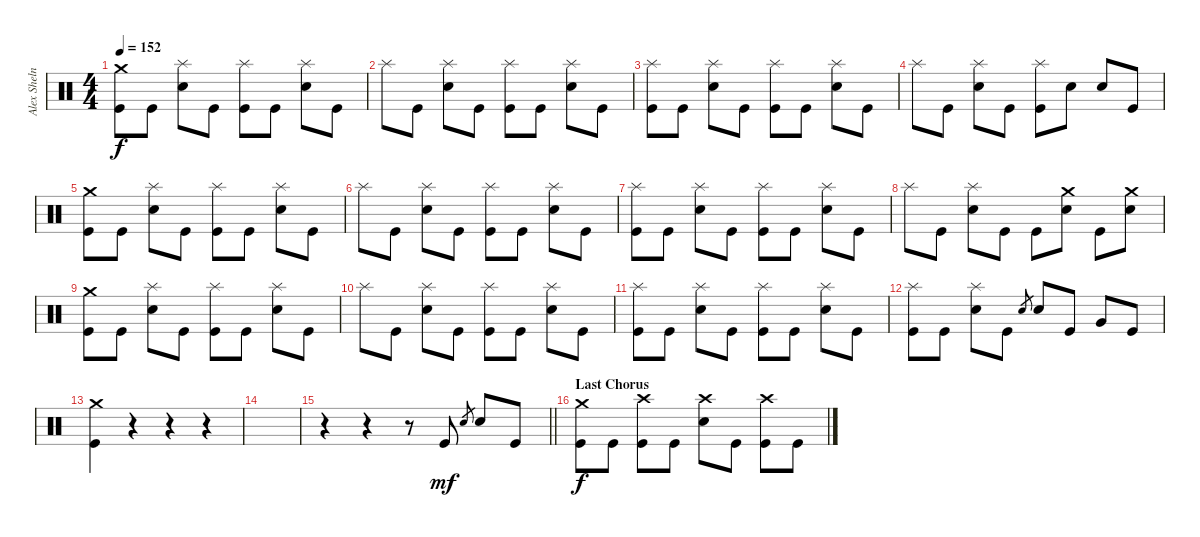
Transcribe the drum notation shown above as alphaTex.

\track ("Alex Shelnut" "Alex Sheln") {instrument percussion}
\staff {score}
\articulation defaults
\ts (4 4)
\tempo 152
\clef neutral
\ks c
("Crash medium (hit)" "Kick (hit)").8{dy f} "Kick (hit)".8 ("Splash (hit)" "Electric Snare (hit)").8 "Kick (hit)".8 ("Splash (hit)" "Kick (hit)").8 "Kick (hit)".8 ("Splash (hit)" "Electric Snare (hit)").8 "Kick (hit)".8 |
"Splash (hit)".8 "Kick (hit)".8 ("Splash (hit)" "Electric Snare (hit)").8 "Kick (hit)".8 ("Splash (hit)" "Kick (hit)").8 "Kick (hit)".8 ("Splash (hit)" "Electric Snare (hit)").8 "Kick (hit)".8 |
("Splash (hit)" "Kick (hit)").8 "Kick (hit)".8 ("Splash (hit)" "Electric Snare (hit)").8 "Kick (hit)".8 ("Splash (hit)" "Kick (hit)").8 "Kick (hit)".8 ("Splash (hit)" "Electric Snare (hit)").8 "Kick (hit)".8 |
"Splash (hit)".8 "Kick (hit)".8 ("Splash (hit)" "Electric Snare (hit)").8 "Kick (hit)".8 ("Splash (hit)" "Kick (hit)").8 "Electric Snare (hit)".8 "Electric Snare (hit)".8 "Kick (hit)".8 |
("Crash medium (hit)" "Kick (hit)").8 "Kick (hit)".8 ("Splash (hit)" "Electric Snare (hit)").8 "Kick (hit)".8 ("Splash (hit)" "Kick (hit)").8 "Kick (hit)".8 ("Splash (hit)" "Electric Snare (hit)").8 "Kick (hit)".8 |
"Splash (hit)".8 "Kick (hit)".8 ("Splash (hit)" "Electric Snare (hit)").8 "Kick (hit)".8 ("Splash (hit)" "Kick (hit)").8 "Kick (hit)".8 ("Splash (hit)" "Electric Snare (hit)").8 "Kick (hit)".8 |
("Splash (hit)" "Kick (hit)").8 "Kick (hit)".8 ("Splash (hit)" "Electric Snare (hit)").8 "Kick (hit)".8 ("Splash (hit)" "Kick (hit)").8 "Kick (hit)".8 ("Splash (hit)" "Electric Snare (hit)").8 "Kick (hit)".8 |
"Splash (hit)".8 "Kick (hit)".8 ("Splash (hit)" "Electric Snare (hit)").8 "Kick (hit)".8 "Kick (hit)".8 ("Crash medium (hit)" "Electric Snare (hit)").8 "Kick (hit)".8 ("Crash medium (hit)" "Electric Snare (hit)").8 |
("Crash medium (hit)" "Kick (hit)").8 "Kick (hit)".8 ("Splash (hit)" "Electric Snare (hit)").8 "Kick (hit)".8 ("Splash (hit)" "Kick (hit)").8 "Kick (hit)".8 ("Splash (hit)" "Electric Snare (hit)").8 "Kick (hit)".8 |
"Splash (hit)".8 "Kick (hit)".8 ("Splash (hit)" "Electric Snare (hit)").8 "Kick (hit)".8 ("Splash (hit)" "Kick (hit)").8 "Kick (hit)".8 ("Splash (hit)" "Electric Snare (hit)").8 "Kick (hit)".8 |
("Splash (hit)" "Kick (hit)").8 "Kick (hit)".8 ("Splash (hit)" "Electric Snare (hit)").8 "Kick (hit)".8 ("Splash (hit)" "Kick (hit)").8 "Kick (hit)".8 ("Splash (hit)" "Electric Snare (hit)").8 "Kick (hit)".8 |
("Splash (hit)" "Kick (hit)").8 "Kick (hit)".8 ("Splash (hit)" "Electric Snare (hit)").8 "Kick (hit)".8 "Electric Snare (hit)".8{gr} "Electric Snare (hit)".8 "Kick (hit)".8 "Very Low Tom (hit)".8 "Kick (hit)".8 |
("Crash medium (hit)" "Kick (hit)").4 r.4 r.4 r.4 |
|
\barLineRight lightlight
r.4 r.4 r.8 "Kick (hit)".8{dy mf} "Electric Snare (hit)".8{gr} "Electric Snare (hit)".8 "Kick (hit)".8 |
\section ("" "Last Chorus")
("Crash medium (hit)" "Kick (hit)").8{dy f} "Kick (hit)".8 ("Crash high (hit)" "Kick (hit)").8 "Kick (hit)".8 ("Crash high (hit)" "Electric Snare (hit)").8 "Kick (hit)".8 ("Crash high (hit)" "Kick (hit)").8 "Kick (hit)".8
